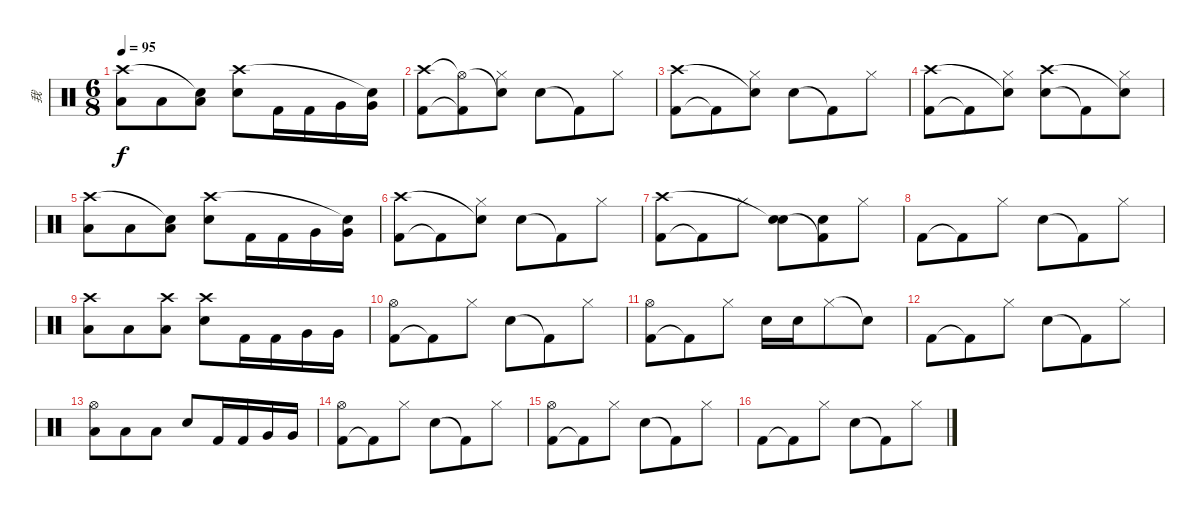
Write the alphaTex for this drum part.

\track ("我" "我") {instrument percussion}
\staff {score}
\articulation defaults
\ts (6 8)
\tempo 95
\clef neutral
\ks c
("Low Tom (hit)" "Crash high (hit)").8{dy f} "Low Tom (hit)".8 ("Low Tom (hit)" "Snare (hit)"{t}).8 ("Snare (hit) 2" "Crash high (hit)").8 "Kick (hit) 2".16 "Kick (hit) 2".16 "Very Low Tom (hit)".16 ("Very Low Tom (hit)" "Snare (hit)"{t}).16 |
("Kick (hit) 2" "Crash high (hit)").8 ("Kick (hit) 2"{t} "Hi-Hat (open)"{t}).8 ("Hi-Hat (closed)" "Snare (hit)"{t}).8 "Electric Snare (hit)".8 "Kick (hit) 2"{t}.8 "Hi-Hat (closed)".8 |
("Kick (hit) 2" "Crash high (hit)").8 "Kick (hit) 2"{t}.8 ("Hi-Hat (closed)" "Snare (hit)"{t}).8 "Electric Snare (hit)".8 "Kick (hit) 2"{t}.8 "Hi-Hat (closed)".8 |
("Kick (hit) 2" "Crash high (hit)").8 "Kick (hit) 2"{t}.8 ("Hi-Hat (closed)" "Snare (hit)"{t}).8 ("Electric Snare (hit)" "Crash high (hit)").8 "Kick (hit) 2"{t}.8 ("Hi-Hat (closed)" "Snare (hit)"{t}).8 |
("Low Tom (hit)" "Crash high (hit)").8 "Low Tom (hit)".8 ("Low Tom (hit)" "Snare (hit)"{t}).8 ("Snare (hit) 2" "Crash high (hit)").8 "Kick (hit) 2".16 "Kick (hit) 2".16 "Very Low Tom (hit)".16 ("Very Low Tom (hit)" "Snare (hit)"{t}).16 |
("Kick (hit) 2" "Crash high (hit)").8 "Kick (hit) 2"{t}.8 ("Hi-Hat (closed)" "Snare (hit)"{t}).8 "Electric Snare (hit)".8 "Kick (hit) 2"{t}.8 "Hi-Hat (closed)".8 |
("Kick (hit) 2" "Crash high (hit)").8 "Kick (hit) 2"{t}.8 "Hi-Hat (closed)".8 ("Electric Snare (hit)" "Snare (hit)"{t}).8 ("Kick (hit) 2"{t} "Electric Snare (hit)").8 "Hi-Hat (closed)".8 |
"Kick (hit) 2".8 "Kick (hit) 2"{t}.8 "Hi-Hat (closed)".8 "Electric Snare (hit)".8 "Kick (hit) 2"{t}.8 "Hi-Hat (closed)".8 |
("Low Tom (hit)" "Crash high (hit)").8 "Low Tom (hit)".8 ("Low Tom (hit)" "Crash high (hit)").8 ("Snare (hit) 2" "Crash high (hit)").8 "Kick (hit) 2".16 "Kick (hit) 2".16 "Very Low Tom (hit)".16 "Very Low Tom (hit)".16 |
("Kick (hit) 2" "Hi-Hat (open)").8 "Kick (hit) 2"{t}.8 "Hi-Hat (closed)".8 "Electric Snare (hit)".8 "Kick (hit) 2"{t}.8 "Hi-Hat (closed)".8 |
("Kick (hit) 2" "Hi-Hat (open)").8 "Kick (hit) 2"{t}.8 "Hi-Hat (closed)".8 "Electric Snare (hit)".16 "Electric Snare (hit)".16 "Hi-Hat (closed)".8 "Snare (hit)"{t}.8 |
"Kick (hit) 2".8 "Kick (hit) 2"{t}.8 "Hi-Hat (closed)".8 "Electric Snare (hit)".8 "Kick (hit) 2"{t}.8 "Hi-Hat (closed)".8 |
("Low Tom (hit)" "Hi-Hat (open)").8 "Low Tom (hit)".8 "Low Tom (hit)".8 "Snare (hit) 2".8 "Kick (hit) 2".16 "Kick (hit) 2".16 "Very Low Tom (hit)".16 "Very Low Tom (hit)".16 |
("Kick (hit) 2" "Hi-Hat (open)").8 "Kick (hit) 2"{t}.8 "Hi-Hat (closed)".8 "Electric Snare (hit)".8 "Kick (hit) 2"{t}.8 "Hi-Hat (closed)".8 |
("Kick (hit) 2" "Hi-Hat (open)").8 "Kick (hit) 2"{t}.8 "Hi-Hat (closed)".8 "Electric Snare (hit)".8 "Kick (hit) 2"{t}.8 "Hi-Hat (closed)".8 |
"Kick (hit) 2".8 "Kick (hit) 2"{t}.8 "Hi-Hat (closed)".8 "Electric Snare (hit)".8 "Kick (hit) 2"{t}.8 "Hi-Hat (closed)".8
